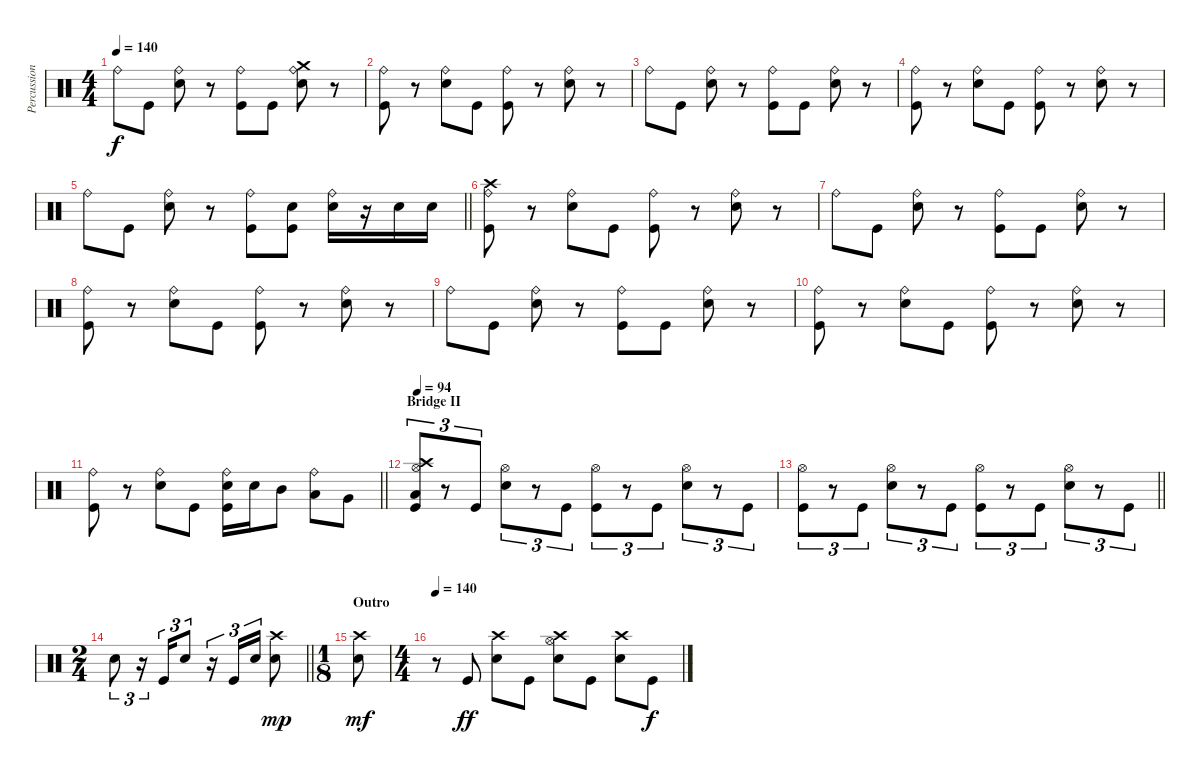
\track ("Percussion" "Percussion") {instrument percussion}
\staff {score}
\articulation defaults
\ts (4 4)
\tempo 140
\clef neutral
\ks c "Ride (bell)".8{dy f} "Kick (hit)".8
("Ride (bell)" "Snare (hit) 2").8 r.8 ("Ride (bell)" "Kick (hit)").8 "Kick (hit)".8 ("Crash medium (hit)" "Ride (bell)" "Snare (hit) 2").8 r.8 |
("Ride (bell)" "Kick (hit)").8 r.8 ("Ride (bell)" "Snare (hit) 2").8 "Kick (hit)".8 ("Ride (bell)" "Kick (hit)").8 r.8 ("Ride (bell)" "Snare (hit) 2").8 r.8 |
"Ride (bell)".8 "Kick (hit)".8 ("Ride (bell)" "Snare (hit) 2").8 r.8 ("Ride (bell)" "Kick (hit)").8 "Kick (hit)".8 ("Ride (bell)" "Snare (hit) 2").8 r.8 |
("Ride (bell)" "Kick (hit)").8 r.8 ("Ride (bell)" "Snare (hit) 2").8 "Kick (hit)".8 ("Ride (bell)" "Kick (hit)").8 r.8 ("Ride (bell)" "Snare (hit) 2").8 r.8 |
\barLineRight lightlight "Ride (bell)".8 "Kick (hit)".8
("Ride (bell)" "Snare (hit) 2").8 r.8 ("Ride (bell)" "Kick (hit)").8 ("Snare (hit) 2" "Kick (hit)").8 ("Ride (bell)" "Snare (hit) 2").16 r.16 "Snare (hit) 2".16 "Snare (hit) 2".16 |
("Crash high (hit)" "Ride (bell)" "Kick (hit)").8 r.8 ("Ride (bell)" "Snare (hit) 2").8 "Kick (hit)".8 ("Ride (bell)" "Kick (hit)").8 r.8 ("Ride (bell)" "Snare (hit) 2").8 r.8 |
"Ride (bell)".8 "Kick (hit)".8 ("Ride (bell)" "Snare (hit) 2").8 r.8 ("Ride (bell)" "Kick (hit)").8 "Kick (hit)".8 ("Ride (bell)" "Snare (hit) 2").8 r.8 |
("Ride (bell)" "Kick (hit)").8 r.8 ("Ride (bell)" "Snare (hit) 2").8 "Kick (hit)".8 ("Ride (bell)" "Kick (hit)").8 r.8 ("Ride (bell)" "Snare (hit) 2").8 r.8 |
"Ride (bell)".8 "Kick (hit)".8 ("Ride (bell)" "Snare (hit) 2").8 r.8 ("Ride (bell)" "Kick (hit)").8 "Kick (hit)".8 ("Ride (bell)" "Snare (hit) 2").8 r.8 |
("Ride (bell)" "Kick (hit)").8 r.8 ("Ride (bell)" "Snare (hit) 2").8 "Kick (hit)".8 ("Ride (bell)" "Kick (hit)").8 r.8 ("Ride (bell)" "Snare (hit) 2").8 r.8 |
\barLineRight lightlight
("Ride (bell)" "Kick (hit)").8 r.8 ("Ride (bell)" "Snare (hit) 2").8 "Kick (hit)".8 ("Ride (bell)" "Snare (hit) 2" "Kick (hit)").16 "Snare (hit) 2".16 "Mid Tom (hit)".8 ("Ride (bell)" "Low Tom (hit)").8 "Very Low Tom (hit)".8 |
\section ("" "Bridge II")
\tempo 94
("Crash high (hit)" "Hi-Hat (open)" "Low Floor Tom (hit)" "Kick (hit)").8{tu (3 2)} r.8{tu (3 2)} "Kick (hit)".8{tu (3 2)} ("Hi-Hat (open)" "Snare (hit) 2").8{tu (3 2)} r.8{tu (3 2)} "Kick (hit)".8{tu (3 2)} ("Hi-Hat (open)" "Kick (hit)").8{tu (3 2)} r.8{tu (3 2)} "Kick (hit)".8{tu (3 2)} ("Hi-Hat (open)" "Snare (hit) 2").8{tu (3 2)} r.8{tu (3 2)} "Kick (hit)".8{tu (3 2)} |
\barLineRight lightlight
("Hi-Hat (open)" "Kick (hit)").8{tu (3 2)} r.8{tu (3 2)} "Kick (hit)".8{tu (3 2)} ("Hi-Hat (open)" "Snare (hit) 2").8{tu (3 2)} r.8{tu (3 2)} "Kick (hit)".8{tu (3 2)} ("Hi-Hat (open)" "Kick (hit)").8{tu (3 2)} r.8{tu (3 2)} "Kick (hit)".8{tu (3 2)} ("Hi-Hat (open)" "Snare (hit) 2").8{tu (3 2)} r.8{tu (3 2)} "Kick (hit)".8{tu (3 2)} |
\ts (2 4)
\barLineRight lightlight "Snare (hit) 2".8{tu (3 2)}
r.16{tu (3 2)} "Kick (hit)".16{tu (3 2)} "Snare (hit) 2".8{tu (3 2)} r.16{tu (3 2)} "Kick (hit)".16{tu (3 2)} "Snare (hit) 2".16{tu (3 2)} ("Crash high (hit)" "Snare (hit) 2").8{dy mp} |
\ts (1 8)
\section ("" "Outro")
("Crash high (hit)" "Snare (hit) 2").8{dy mf} |
\ts (4 4)
\tempo 140
r.8 "Kick (hit)".8{dy ff} ("Crash high (hit)" "Snare (hit) 2").8 "Kick (hit)".8 ("Crash high (hit)" "Hi-Hat (open)" "Snare (hit) 2").8 "Kick (hit)".8 ("Crash high (hit)" "Snare (hit) 2").8 "Kick (hit)".8{dy f}
